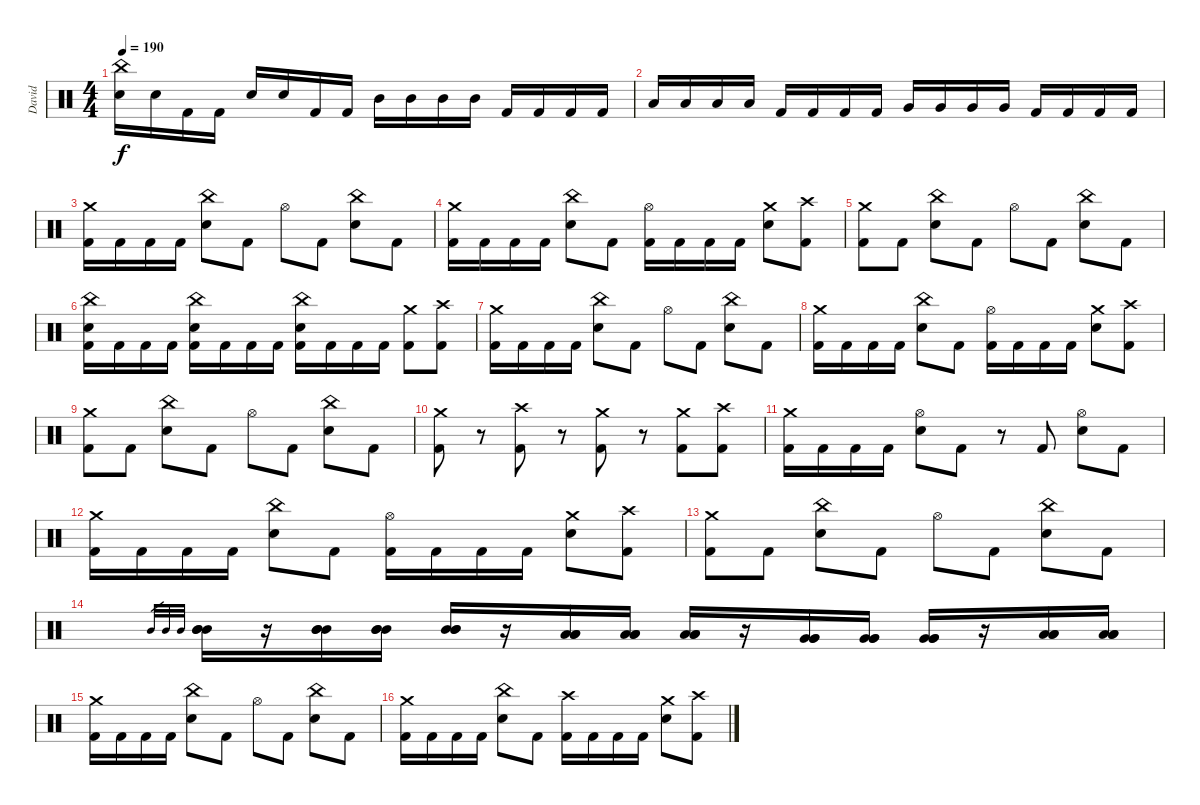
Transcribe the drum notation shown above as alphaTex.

\track ("David" "David") {instrument percussion}
\staff {score}
\articulation defaults
\ts (4 4)
\tempo 190
\clef neutral
\ks c
("China (hit)" "Electric Snare (hit)").16{dy f} "Electric Snare (hit)".16 "Kick (hit) 2".16 "Kick (hit) 2".16 "Electric Snare (hit)".16 "Electric Snare (hit)".16 "Kick (hit) 2".16 "Kick (hit) 2".16 "Mid Tom (hit)".16 "Mid Tom (hit)".16 "Mid Tom (hit)".16 "Mid Tom (hit)".16 "Kick (hit) 2".16 "Kick (hit) 2".16 "Kick (hit) 2".16 "Kick (hit) 2".16 |
"Low Tom (hit)".16 "Low Tom (hit)".16 "Low Tom (hit)".16 "Low Tom (hit)".16 "Kick (hit) 2".16 "Kick (hit) 2".16 "Kick (hit) 2".16 "Kick (hit) 2".16 "Very Low Tom (hit)".16 "Very Low Tom (hit)".16 "Very Low Tom (hit)".16 "Very Low Tom (hit)".16 "Kick (hit) 2".16 "Kick (hit) 2".16 "Kick (hit) 2".16 "Kick (hit) 2".16 |
("Crash medium (hit)" "Kick (hit) 2").16 "Kick (hit) 2".16 "Kick (hit) 2".16 "Kick (hit) 2".16 ("China (hit)" "Electric Snare (hit)").8 "Kick (hit) 2".8 "Hi-Hat (open)".8 "Kick (hit) 2".8 ("China (hit)" "Electric Snare (hit)").8 "Kick (hit) 2".8 |
("Crash medium (hit)" "Kick (hit) 2").16 "Kick (hit) 2".16 "Kick (hit) 2".16 "Kick (hit) 2".16 ("China (hit)" "Electric Snare (hit)").8 "Kick (hit) 2".8 ("Hi-Hat (open)" "Kick (hit) 2").16 "Kick (hit) 2".16 "Kick (hit) 2".16 "Kick (hit) 2".16 ("Crash medium (hit)" "Electric Snare (hit)").8 ("Crash high (hit)" "Kick (hit) 2").8 |
("Crash medium (hit)" "Kick (hit) 2").8 "Kick (hit) 2".8 ("China (hit)" "Electric Snare (hit)").8 "Kick (hit) 2".8 "Hi-Hat (open)".8 "Kick (hit) 2".8 ("China (hit)" "Electric Snare (hit)").8 "Kick (hit) 2".8 |
("China (hit)" "Electric Snare (hit)" "Kick (hit) 2").16 "Kick (hit) 2".16 "Kick (hit) 2".16 "Kick (hit) 2".16 ("China (hit)" "Electric Snare (hit)" "Kick (hit) 2").16 "Kick (hit) 2".16 "Kick (hit) 2".16 "Kick (hit) 2".16 ("China (hit)" "Electric Snare (hit)" "Kick (hit) 2").16 "Kick (hit) 2".16 "Kick (hit) 2".16 "Kick (hit) 2".16 ("Crash medium (hit)" "Kick (hit) 2").8 ("Crash high (hit)" "Kick (hit) 2").8 |
("Crash medium (hit)" "Kick (hit) 2").16 "Kick (hit) 2".16 "Kick (hit) 2".16 "Kick (hit) 2".16 ("China (hit)" "Electric Snare (hit)").8 "Kick (hit) 2".8 "Hi-Hat (open)".8 "Kick (hit) 2".8 ("China (hit)" "Electric Snare (hit)").8 "Kick (hit) 2".8 |
("Crash medium (hit)" "Kick (hit) 2").16 "Kick (hit) 2".16 "Kick (hit) 2".16 "Kick (hit) 2".16 ("China (hit)" "Electric Snare (hit)").8 "Kick (hit) 2".8 ("Hi-Hat (open)" "Kick (hit) 2").16 "Kick (hit) 2".16 "Kick (hit) 2".16 "Kick (hit) 2".16 ("Crash medium (hit)" "Electric Snare (hit)").8 ("Crash high (hit)" "Kick (hit) 2").8 |
("Crash medium (hit)" "Kick (hit) 2").8 "Kick (hit) 2".8 ("China (hit)" "Electric Snare (hit)").8 "Kick (hit) 2".8 "Hi-Hat (open)".8 "Kick (hit) 2".8 ("China (hit)" "Electric Snare (hit)").8 "Kick (hit) 2".8 |
("Crash medium (hit)" "Kick (hit) 2").8 r.8 ("Crash high (hit)" "Kick (hit) 2").8 r.8 ("Crash medium (hit)" "Kick (hit) 2").8 r.8 ("Crash medium (hit)" "Kick (hit) 2").8 ("Crash high (hit)" "Kick (hit) 2").8 |
("Crash medium (hit)" "Kick (hit) 2").16 "Kick (hit) 2".16 "Kick (hit) 2".16 "Kick (hit) 2".16 ("Hi-Hat (open)" "Electric Snare (hit)").8 "Kick (hit) 2".8 r.8 "Kick (hit) 2".8 ("Hi-Hat (open)" "Electric Snare (hit)").8 "Kick (hit) 2".8 |
("Crash medium (hit)" "Kick (hit) 2").16 "Kick (hit) 2".16 "Kick (hit) 2".16 "Kick (hit) 2".16 ("China (hit)" "Electric Snare (hit)").8 "Kick (hit) 2".8 ("Hi-Hat (open)" "Kick (hit) 2").16 "Kick (hit) 2".16 "Kick (hit) 2".16 "Kick (hit) 2".16 ("Crash medium (hit)" "Electric Snare (hit)").8 ("Crash high (hit)" "Kick (hit) 2").8 |
("Crash medium (hit)" "Kick (hit) 2").8 "Kick (hit) 2".8 ("China (hit)" "Electric Snare (hit)").8 "Kick (hit) 2".8 "Hi-Hat (open)".8 "Kick (hit) 2".8 ("China (hit)" "Electric Snare (hit)").8 "Kick (hit) 2".8 |
"Mid Tom (hit)".32{gr} "Mid Tom (hit)".32{gr} "Mid Tom (hit)".32{gr} ("Mid Tom (hit)" "Mid Tom (hit)" "Mid Tom (hit)").16 r.16 ("Mid Tom (hit)" "Mid Tom (hit)" "Mid Tom (hit)").16 ("Mid Tom (hit)" "Mid Tom (hit)" "Mid Tom (hit)").16 ("Mid Tom (hit)" "Mid Tom (hit)" "Mid Tom (hit)").16 r.16 ("Low Tom (hit)" "Low Tom (hit)" "Low Tom (hit)").16 ("Low Tom (hit)" "Low Tom (hit)" "Low Tom (hit)").16 ("Low Tom (hit)" "Low Tom (hit)" "Low Tom (hit)").16 r.16 ("Very Low Tom (hit)" "Very Low Tom (hit)" "Very Low Tom (hit)").16 ("Very Low Tom (hit)" "Very Low Tom (hit)" "Very Low Tom (hit)").16 ("Very Low Tom (hit)" "Very Low Tom (hit)" "Very Low Tom (hit)").16 r.16 ("Low Floor Tom (hit)" "Low Floor Tom (hit)" "Low Floor Tom (hit)").16 ("Low Floor Tom (hit)" "Low Floor Tom (hit)" "Low Floor Tom (hit)").16 |
("Crash medium (hit)" "Kick (hit) 2").16 "Kick (hit) 2".16 "Kick (hit) 2".16 "Kick (hit) 2".16 ("China (hit)" "Electric Snare (hit)").8 "Kick (hit) 2".8 "Hi-Hat (open)".8 "Kick (hit) 2".8 ("China (hit)" "Electric Snare (hit)").8 "Kick (hit) 2".8 |
("Crash medium (hit)" "Kick (hit) 2").16 "Kick (hit) 2".16 "Kick (hit) 2".16 "Kick (hit) 2".16 ("China (hit)" "Electric Snare (hit)").8 "Kick (hit) 2".8 ("Crash high (hit)" "Kick (hit) 2").16 "Kick (hit) 2".16 "Kick (hit) 2".16 "Kick (hit) 2".16 ("Crash medium (hit)" "Electric Snare (hit)").8 ("Crash high (hit)" "Kick (hit) 2").8
